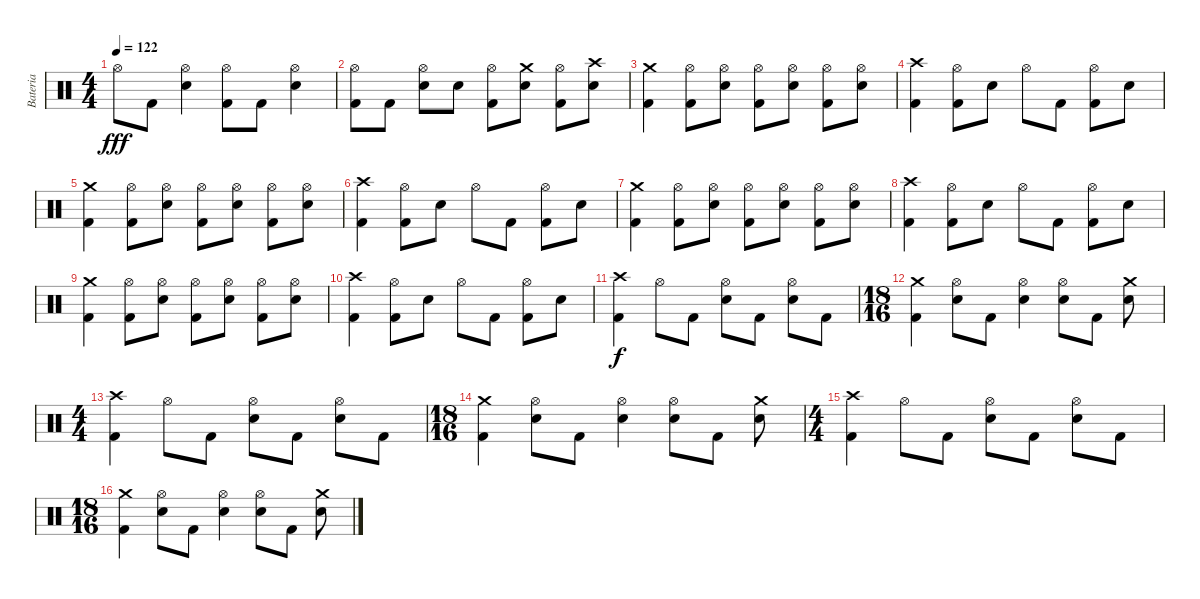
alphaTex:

\track ("Bateria" "Bateria") {instrument percussion}
\staff {score}
\articulation defaults
\ts (4 4)
\tempo 122
\clef neutral
\ks c "Hi-Hat (open)".8{dy fff} "Kick (hit) 2".8
("Hi-Hat (open)" "Electric Snare (hit)").4 ("Hi-Hat (open)" "Kick (hit) 2").8 "Kick (hit) 2".8 ("Hi-Hat (open)" "Electric Snare (hit)").4 |
("Hi-Hat (open)" "Kick (hit) 2").8 "Kick (hit) 2".8 ("Hi-Hat (open)" "Electric Snare (hit)").8 "Electric Snare (hit)".8 ("Hi-Hat (open)" "Kick (hit) 2").8 ("Crash medium (hit)" "Electric Snare (hit)").8 ("Hi-Hat (open)" "Kick (hit) 2").8 ("Crash high (hit)" "Electric Snare (hit)").8 |
("Crash medium (hit)" "Kick (hit) 2").4 ("Hi-Hat (open)" "Kick (hit) 2").8 ("Hi-Hat (open)" "Electric Snare (hit)").8 ("Hi-Hat (open)" "Kick (hit) 2").8 ("Hi-Hat (open)" "Electric Snare (hit)").8 ("Hi-Hat (open)" "Kick (hit) 2").8 ("Hi-Hat (open)" "Electric Snare (hit)").8 |
("Crash high (hit)" "Kick (hit) 2").4 ("Hi-Hat (open)" "Kick (hit) 2").8 "Electric Snare (hit)".8 "Hi-Hat (open)".8 "Kick (hit) 2".8 ("Hi-Hat (open)" "Kick (hit) 2").8 "Electric Snare (hit)".8 |
("Crash medium (hit)" "Kick (hit) 2").4 ("Hi-Hat (open)" "Kick (hit) 2").8 ("Hi-Hat (open)" "Electric Snare (hit)").8 ("Hi-Hat (open)" "Kick (hit) 2").8 ("Hi-Hat (open)" "Electric Snare (hit)").8 ("Hi-Hat (open)" "Kick (hit) 2").8 ("Hi-Hat (open)" "Electric Snare (hit)").8 |
("Crash high (hit)" "Kick (hit) 2").4 ("Hi-Hat (open)" "Kick (hit) 2").8 "Electric Snare (hit)".8 "Hi-Hat (open)".8 "Kick (hit) 2".8 ("Hi-Hat (open)" "Kick (hit) 2").8 "Electric Snare (hit)".8 |
("Crash medium (hit)" "Kick (hit) 2").4 ("Hi-Hat (open)" "Kick (hit) 2").8 ("Hi-Hat (open)" "Electric Snare (hit)").8 ("Hi-Hat (open)" "Kick (hit) 2").8 ("Hi-Hat (open)" "Electric Snare (hit)").8 ("Hi-Hat (open)" "Kick (hit) 2").8 ("Hi-Hat (open)" "Electric Snare (hit)").8 |
("Crash high (hit)" "Kick (hit) 2").4 ("Hi-Hat (open)" "Kick (hit) 2").8 "Electric Snare (hit)".8 "Hi-Hat (open)".8 "Kick (hit) 2".8 ("Hi-Hat (open)" "Kick (hit) 2").8 "Electric Snare (hit)".8 |
("Crash medium (hit)" "Kick (hit) 2").4 ("Hi-Hat (open)" "Kick (hit) 2").8 ("Hi-Hat (open)" "Electric Snare (hit)").8 ("Hi-Hat (open)" "Kick (hit) 2").8 ("Hi-Hat (open)" "Electric Snare (hit)").8 ("Hi-Hat (open)" "Kick (hit) 2").8 ("Hi-Hat (open)" "Electric Snare (hit)").8 |
("Crash high (hit)" "Kick (hit) 2").4 ("Hi-Hat (open)" "Kick (hit) 2").8 "Electric Snare (hit)".8 "Hi-Hat (open)".8 "Kick (hit) 2".8 ("Hi-Hat (open)" "Kick (hit) 2").8 "Electric Snare (hit)".8 |
("Crash high (hit)" "Kick (hit) 2").4{dy f} "Hi-Hat (open)".8 "Kick (hit) 2".8 ("Hi-Hat (open)" "Electric Snare (hit)").8 "Kick (hit) 2".8 ("Hi-Hat (open)" "Electric Snare (hit)").8 "Kick (hit) 2".8 |
\ts (18 16)
("Crash medium (hit)" "Kick (hit) 2").4 ("Hi-Hat (open)" "Electric Snare (hit)").8 "Kick (hit) 2".8 ("Hi-Hat (open)" "Electric Snare (hit)").4 ("Hi-Hat (open)" "Electric Snare (hit)").8 "Kick (hit) 2".8 ("Crash medium (hit)" "Electric Snare (hit)").8 |
\ts (4 4)
("Crash high (hit)" "Kick (hit) 2").4 "Hi-Hat (open)".8 "Kick (hit) 2".8 ("Hi-Hat (open)" "Electric Snare (hit)").8 "Kick (hit) 2".8 ("Hi-Hat (open)" "Electric Snare (hit)").8 "Kick (hit) 2".8 |
\ts (18 16)
("Crash medium (hit)" "Kick (hit) 2").4 ("Hi-Hat (open)" "Electric Snare (hit)").8 "Kick (hit) 2".8 ("Hi-Hat (open)" "Electric Snare (hit)").4 ("Hi-Hat (open)" "Electric Snare (hit)").8 "Kick (hit) 2".8 ("Crash medium (hit)" "Electric Snare (hit)").8 |
\ts (4 4)
("Crash high (hit)" "Kick (hit) 2").4 "Hi-Hat (open)".8 "Kick (hit) 2".8 ("Hi-Hat (open)" "Electric Snare (hit)").8 "Kick (hit) 2".8 ("Hi-Hat (open)" "Electric Snare (hit)").8 "Kick (hit) 2".8 |
\ts (18 16)
("Crash medium (hit)" "Kick (hit) 2").4 ("Hi-Hat (open)" "Electric Snare (hit)").8 "Kick (hit) 2".8 ("Hi-Hat (open)" "Electric Snare (hit)").4 ("Hi-Hat (open)" "Electric Snare (hit)").8 "Kick (hit) 2".8 ("Crash medium (hit)" "Electric Snare (hit)").8
